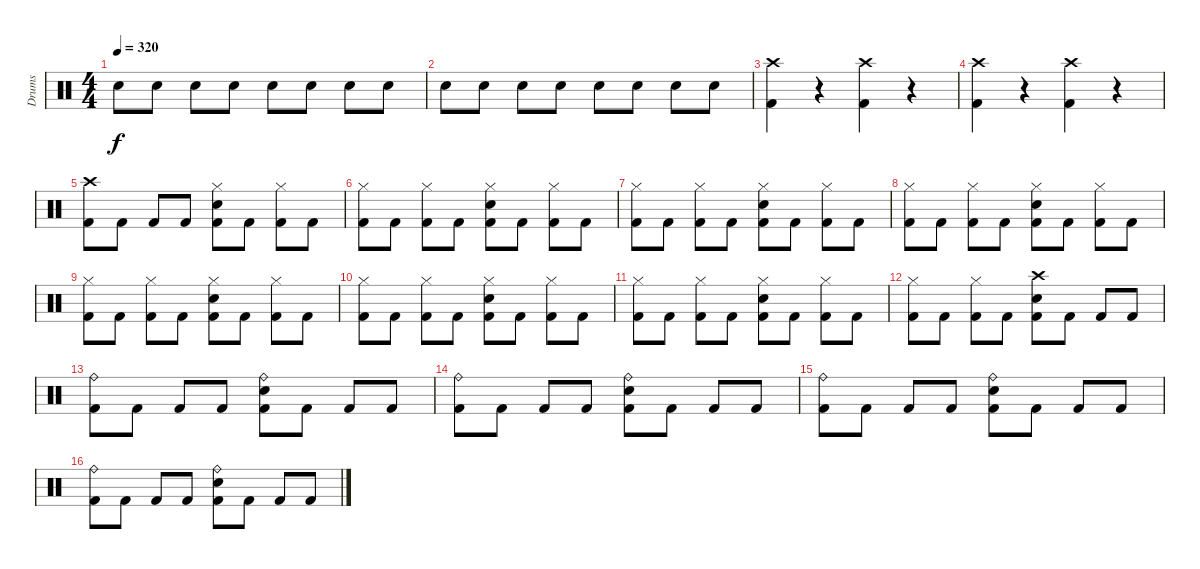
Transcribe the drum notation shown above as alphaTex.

\track ("Drums" "Drums") {instrument percussion}
\staff {score}
\articulation defaults
\ts (4 4)
\tempo 320
\clef neutral
\ks c "Snare (hit) 2".8{dy f} "Snare (hit) 2".8 "Snare (hit) 2".8 "Snare (hit) 2".8 "Snare (hit) 2".8 "Snare (hit) 2".8 "Snare (hit) 2".8 "Snare (hit) 2".8
|
"Snare (hit) 2".8 "Snare (hit) 2".8 "Snare (hit) 2".8 "Snare (hit) 2".8 "Snare (hit) 2".8 "Snare (hit) 2".8 "Snare (hit) 2".8 "Snare (hit) 2".8 |
("Kick (hit) 2" "Crash high (hit)").4 r.4 ("Kick (hit) 2" "Crash high (hit)").4 r.4 |
("Kick (hit) 2" "Crash high (hit)").4 r.4 ("Kick (hit) 2" "Crash high (hit)").4 r.4 |
("Crash high (hit)" "Kick (hit) 2").8 "Kick (hit) 2".8 "Kick (hit) 2".8 "Kick (hit) 2".8 ("Hi-Hat (closed)" "Snare (hit) 2" "Kick (hit) 2").8 "Kick (hit) 2".8 ("Hi-Hat (closed)" "Kick (hit) 2").8 "Kick (hit) 2".8 |
("Hi-Hat (closed)" "Kick (hit) 2").8 "Kick (hit) 2".8 ("Hi-Hat (closed)" "Kick (hit) 2").8 "Kick (hit) 2".8 ("Hi-Hat (closed)" "Snare (hit) 2" "Kick (hit) 2").8 "Kick (hit) 2".8 ("Hi-Hat (closed)" "Kick (hit) 2").8 "Kick (hit) 2".8 |
("Hi-Hat (closed)" "Kick (hit) 2").8 "Kick (hit) 2".8 ("Hi-Hat (closed)" "Kick (hit) 2").8 "Kick (hit) 2".8 ("Kick (hit) 2" "Snare (hit) 2" "Hi-Hat (closed)").8 "Kick (hit) 2".8 ("Hi-Hat (closed)" "Kick (hit) 2").8 "Kick (hit) 2".8 |
("Hi-Hat (closed)" "Kick (hit) 2").8 "Kick (hit) 2".8 ("Hi-Hat (closed)" "Kick (hit) 2").8 "Kick (hit) 2".8 ("Kick (hit) 2" "Snare (hit) 2" "Hi-Hat (closed)").8 "Kick (hit) 2".8 ("Kick (hit) 2" "Hi-Hat (closed)").8 "Kick (hit) 2".8 |
("Hi-Hat (closed)" "Kick (hit) 2").8 "Kick (hit) 2".8 ("Hi-Hat (closed)" "Kick (hit) 2").8 "Kick (hit) 2".8 ("Kick (hit) 2" "Snare (hit) 2" "Hi-Hat (closed)").8 "Kick (hit) 2".8 ("Hi-Hat (closed)" "Kick (hit) 2").8 "Kick (hit) 2".8 |
("Hi-Hat (closed)" "Kick (hit) 2").8 "Kick (hit) 2".8 ("Hi-Hat (closed)" "Kick (hit) 2").8 "Kick (hit) 2".8 ("Kick (hit) 2" "Snare (hit) 2" "Hi-Hat (closed)").8 "Kick (hit) 2".8 ("Hi-Hat (closed)" "Kick (hit) 2").8 "Kick (hit) 2".8 |
("Hi-Hat (closed)" "Kick (hit) 2").8 "Kick (hit) 2".8 ("Hi-Hat (closed)" "Kick (hit) 2").8 "Kick (hit) 2".8 ("Kick (hit) 2" "Snare (hit) 2" "Hi-Hat (closed)").8 "Kick (hit) 2".8 ("Hi-Hat (closed)" "Kick (hit) 2").8 "Kick (hit) 2".8 |
("Kick (hit) 2" "Hi-Hat (closed)").8 "Kick (hit) 2".8 ("Kick (hit) 2" "Hi-Hat (closed)").8 "Kick (hit) 2".8 ("Kick (hit) 2" "Crash high (hit)" "Snare (hit) 2").8 "Kick (hit) 2".8 "Kick (hit) 2".8 "Kick (hit) 2".8 |
("Ride (bell)" "Kick (hit) 2").8 "Kick (hit) 2".8 "Kick (hit) 2".8 "Kick (hit) 2".8 ("Ride (bell)" "Snare (hit) 2" "Kick (hit) 2").8 "Kick (hit) 2".8 "Kick (hit) 2".8 "Kick (hit) 2".8 |
("Ride (bell)" "Kick (hit) 2").8 "Kick (hit) 2".8 "Kick (hit) 2".8 "Kick (hit) 2".8 ("Ride (bell)" "Kick (hit) 2" "Snare (hit) 2").8 "Kick (hit) 2".8 "Kick (hit) 2".8 "Kick (hit) 2".8 |
("Ride (bell)" "Kick (hit) 2").8 "Kick (hit) 2".8 "Kick (hit) 2".8 "Kick (hit) 2".8 ("Kick (hit) 2" "Snare (hit) 2" "Ride (bell)").8 "Kick (hit) 2".8 "Kick (hit) 2".8 "Kick (hit) 2".8 |
("Ride (bell)" "Kick (hit) 2").8 "Kick (hit) 2".8 "Kick (hit) 2".8 "Kick (hit) 2".8 ("Ride (bell)" "Snare (hit) 2" "Kick (hit) 2").8 "Kick (hit) 2".8 "Kick (hit) 2".8 "Kick (hit) 2".8
